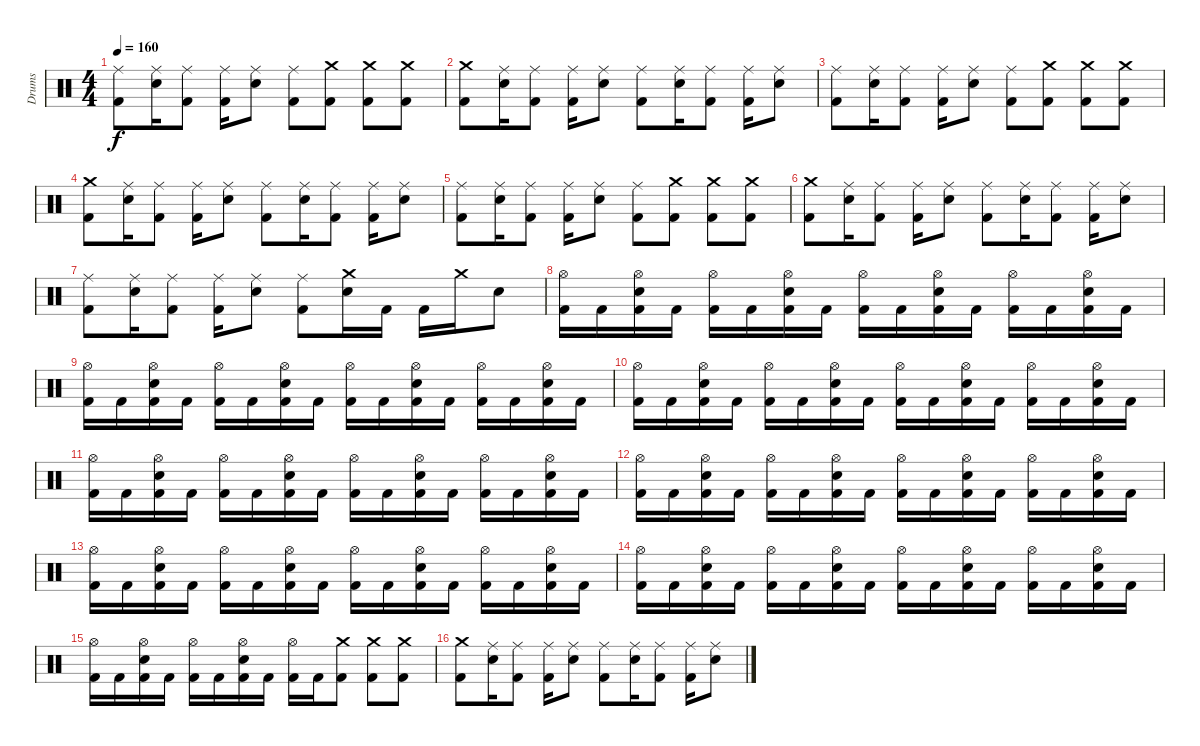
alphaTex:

\track ("Drums" "Drums") {instrument percussion}
\staff {score}
\articulation defaults
\ts (4 4)
\tempo 160
\clef neutral
\ks c
("Ride (middle)" "Kick (hit) 2").8{dy f} ("Snare (hit) 2" "Ride (middle)").16 ("Ride (middle)" "Kick (hit) 2").8 ("Ride (middle)" "Kick (hit) 2").16 ("Snare (hit) 2" "Ride (middle)").8 ("Ride (middle)" "Kick (hit) 2").8 ("Crash medium (hit)" "Kick (hit) 2").8 ("Crash medium (hit)" "Kick (hit) 2").8 ("Crash medium (hit)" "Kick (hit) 2").8 |
("Crash medium (hit)" "Kick (hit) 2").8 ("Snare (hit) 2" "Ride (middle)").16 ("Ride (middle)" "Kick (hit) 2").8 ("Ride (middle)" "Kick (hit) 2").16 ("Snare (hit) 2" "Ride (middle)").8 ("Ride (middle)" "Kick (hit) 2").8 ("Snare (hit) 2" "Ride (middle)").16 ("Ride (middle)" "Kick (hit) 2").8 ("Ride (middle)" "Kick (hit) 2").16 ("Snare (hit) 2" "Ride (middle)").8 |
("Ride (middle)" "Kick (hit) 2").8 ("Snare (hit) 2" "Ride (middle)").16 ("Ride (middle)" "Kick (hit) 2").8 ("Ride (middle)" "Kick (hit) 2").16 ("Snare (hit) 2" "Ride (middle)").8 ("Ride (middle)" "Kick (hit) 2").8 ("Crash medium (hit)" "Kick (hit) 2").8 ("Crash medium (hit)" "Kick (hit) 2").8 ("Crash medium (hit)" "Kick (hit) 2").8 |
("Crash medium (hit)" "Kick (hit) 2").8 ("Snare (hit) 2" "Ride (middle)").16 ("Ride (middle)" "Kick (hit) 2").8 ("Ride (middle)" "Kick (hit) 2").16 ("Snare (hit) 2" "Ride (middle)").8 ("Ride (middle)" "Kick (hit) 2").8 ("Snare (hit) 2" "Ride (middle)").16 ("Ride (middle)" "Kick (hit) 2").8 ("Ride (middle)" "Kick (hit) 2").16 ("Snare (hit) 2" "Ride (middle)").8 |
("Ride (middle)" "Kick (hit) 2").8 ("Snare (hit) 2" "Ride (middle)").16 ("Ride (middle)" "Kick (hit) 2").8 ("Ride (middle)" "Kick (hit) 2").16 ("Snare (hit) 2" "Ride (middle)").8 ("Ride (middle)" "Kick (hit) 2").8 ("Crash medium (hit)" "Kick (hit) 2").8 ("Crash medium (hit)" "Kick (hit) 2").8 ("Crash medium (hit)" "Kick (hit) 2").8 |
("Crash medium (hit)" "Kick (hit) 2").8 ("Snare (hit) 2" "Ride (middle)").16 ("Ride (middle)" "Kick (hit) 2").8 ("Ride (middle)" "Kick (hit) 2").16 ("Snare (hit) 2" "Ride (middle)").8 ("Ride (middle)" "Kick (hit) 2").8 ("Snare (hit) 2" "Ride (middle)").16 ("Ride (middle)" "Kick (hit) 2").8 ("Ride (middle)" "Kick (hit) 2").16 ("Snare (hit) 2" "Ride (middle)").8 |
("Ride (middle)" "Kick (hit) 2").8 ("Snare (hit) 2" "Ride (middle)").16 ("Ride (middle)" "Kick (hit) 2").8 ("Ride (middle)" "Kick (hit) 2").16 ("Snare (hit) 2" "Ride (middle)").8 ("Ride (middle)" "Kick (hit) 2").8 ("Snare (hit) 2" "Crash medium (hit)").16 "Kick (hit) 2".16 "Kick (hit) 2".16 "Crash medium (hit)".16 "Snare (hit) 2".8 |
("Hi-Hat (open)" "Kick (hit) 2").16 "Kick (hit) 2".16 ("Snare (hit) 2" "Hi-Hat (open)" "Kick (hit) 2").16 "Kick (hit) 2".16 ("Hi-Hat (open)" "Kick (hit) 2").16 "Kick (hit) 2".16 ("Snare (hit) 2" "Hi-Hat (open)" "Kick (hit) 2").16 "Kick (hit) 2".16 ("Hi-Hat (open)" "Kick (hit) 2").16 "Kick (hit) 2".16 ("Snare (hit) 2" "Hi-Hat (open)" "Kick (hit) 2").16 "Kick (hit) 2".16 ("Hi-Hat (open)" "Kick (hit) 2").16 "Kick (hit) 2".16 ("Snare (hit) 2" "Hi-Hat (open)" "Kick (hit) 2").16 "Kick (hit) 2".16 |
("Hi-Hat (open)" "Kick (hit) 2").16 "Kick (hit) 2".16 ("Snare (hit) 2" "Hi-Hat (open)" "Kick (hit) 2").16 "Kick (hit) 2".16 ("Hi-Hat (open)" "Kick (hit) 2").16 "Kick (hit) 2".16 ("Snare (hit) 2" "Hi-Hat (open)" "Kick (hit) 2").16 "Kick (hit) 2".16 ("Hi-Hat (open)" "Kick (hit) 2").16 "Kick (hit) 2".16 ("Snare (hit) 2" "Hi-Hat (open)" "Kick (hit) 2").16 "Kick (hit) 2".16 ("Hi-Hat (open)" "Kick (hit) 2").16 "Kick (hit) 2".16 ("Snare (hit) 2" "Hi-Hat (open)" "Kick (hit) 2").16 "Kick (hit) 2".16 |
("Hi-Hat (open)" "Kick (hit) 2").16 "Kick (hit) 2".16 ("Snare (hit) 2" "Hi-Hat (open)" "Kick (hit) 2").16 "Kick (hit) 2".16 ("Hi-Hat (open)" "Kick (hit) 2").16 "Kick (hit) 2".16 ("Snare (hit) 2" "Hi-Hat (open)" "Kick (hit) 2").16 "Kick (hit) 2".16 ("Hi-Hat (open)" "Kick (hit) 2").16 "Kick (hit) 2".16 ("Snare (hit) 2" "Hi-Hat (open)" "Kick (hit) 2").16 "Kick (hit) 2".16 ("Hi-Hat (open)" "Kick (hit) 2").16 "Kick (hit) 2".16 ("Snare (hit) 2" "Hi-Hat (open)" "Kick (hit) 2").16 "Kick (hit) 2".16 |
("Hi-Hat (open)" "Kick (hit) 2").16 "Kick (hit) 2".16 ("Snare (hit) 2" "Hi-Hat (open)" "Kick (hit) 2").16 "Kick (hit) 2".16 ("Hi-Hat (open)" "Kick (hit) 2").16 "Kick (hit) 2".16 ("Snare (hit) 2" "Hi-Hat (open)" "Kick (hit) 2").16 "Kick (hit) 2".16 ("Hi-Hat (open)" "Kick (hit) 2").16 "Kick (hit) 2".16 ("Snare (hit) 2" "Hi-Hat (open)" "Kick (hit) 2").16 "Kick (hit) 2".16 ("Hi-Hat (open)" "Kick (hit) 2").16 "Kick (hit) 2".16 ("Snare (hit) 2" "Hi-Hat (open)" "Kick (hit) 2").16 "Kick (hit) 2".16 |
("Hi-Hat (open)" "Kick (hit) 2").16 "Kick (hit) 2".16 ("Snare (hit) 2" "Hi-Hat (open)" "Kick (hit) 2").16 "Kick (hit) 2".16 ("Hi-Hat (open)" "Kick (hit) 2").16 "Kick (hit) 2".16 ("Snare (hit) 2" "Hi-Hat (open)" "Kick (hit) 2").16 "Kick (hit) 2".16 ("Hi-Hat (open)" "Kick (hit) 2").16 "Kick (hit) 2".16 ("Snare (hit) 2" "Hi-Hat (open)" "Kick (hit) 2").16 "Kick (hit) 2".16 ("Hi-Hat (open)" "Kick (hit) 2").16 "Kick (hit) 2".16 ("Snare (hit) 2" "Hi-Hat (open)" "Kick (hit) 2").16 "Kick (hit) 2".16 |
("Hi-Hat (open)" "Kick (hit) 2").16 "Kick (hit) 2".16 ("Snare (hit) 2" "Hi-Hat (open)" "Kick (hit) 2").16 "Kick (hit) 2".16 ("Hi-Hat (open)" "Kick (hit) 2").16 "Kick (hit) 2".16 ("Snare (hit) 2" "Hi-Hat (open)" "Kick (hit) 2").16 "Kick (hit) 2".16 ("Hi-Hat (open)" "Kick (hit) 2").16 "Kick (hit) 2".16 ("Snare (hit) 2" "Hi-Hat (open)" "Kick (hit) 2").16 "Kick (hit) 2".16 ("Hi-Hat (open)" "Kick (hit) 2").16 "Kick (hit) 2".16 ("Snare (hit) 2" "Hi-Hat (open)" "Kick (hit) 2").16 "Kick (hit) 2".16 |
("Hi-Hat (open)" "Kick (hit) 2").16 "Kick (hit) 2".16 ("Snare (hit) 2" "Hi-Hat (open)" "Kick (hit) 2").16 "Kick (hit) 2".16 ("Hi-Hat (open)" "Kick (hit) 2").16 "Kick (hit) 2".16 ("Snare (hit) 2" "Hi-Hat (open)" "Kick (hit) 2").16 "Kick (hit) 2".16 ("Hi-Hat (open)" "Kick (hit) 2").16 "Kick (hit) 2".16 ("Snare (hit) 2" "Hi-Hat (open)" "Kick (hit) 2").16 "Kick (hit) 2".16 ("Hi-Hat (open)" "Kick (hit) 2").16 "Kick (hit) 2".16 ("Snare (hit) 2" "Hi-Hat (open)" "Kick (hit) 2").16 "Kick (hit) 2".16 |
("Hi-Hat (open)" "Kick (hit) 2").16 "Kick (hit) 2".16 ("Snare (hit) 2" "Hi-Hat (open)" "Kick (hit) 2").16 "Kick (hit) 2".16 ("Hi-Hat (open)" "Kick (hit) 2").16 "Kick (hit) 2".16 ("Snare (hit) 2" "Hi-Hat (open)" "Kick (hit) 2").16 "Kick (hit) 2".16 ("Hi-Hat (open)" "Kick (hit) 2").16 "Kick (hit) 2".16 ("Crash medium (hit)" "Kick (hit) 2").8 ("Crash medium (hit)" "Kick (hit) 2").8 ("Crash medium (hit)" "Kick (hit) 2").8 |
("Crash medium (hit)" "Kick (hit) 2").8 ("Snare (hit) 2" "Ride (middle)").16 ("Ride (middle)" "Kick (hit) 2").8 ("Ride (middle)" "Kick (hit) 2").16 ("Snare (hit) 2" "Ride (middle)").8 ("Ride (middle)" "Kick (hit) 2").8 ("Snare (hit) 2" "Ride (middle)").16 ("Ride (middle)" "Kick (hit) 2").8 ("Ride (middle)" "Kick (hit) 2").16 ("Snare (hit) 2" "Ride (middle)").8
